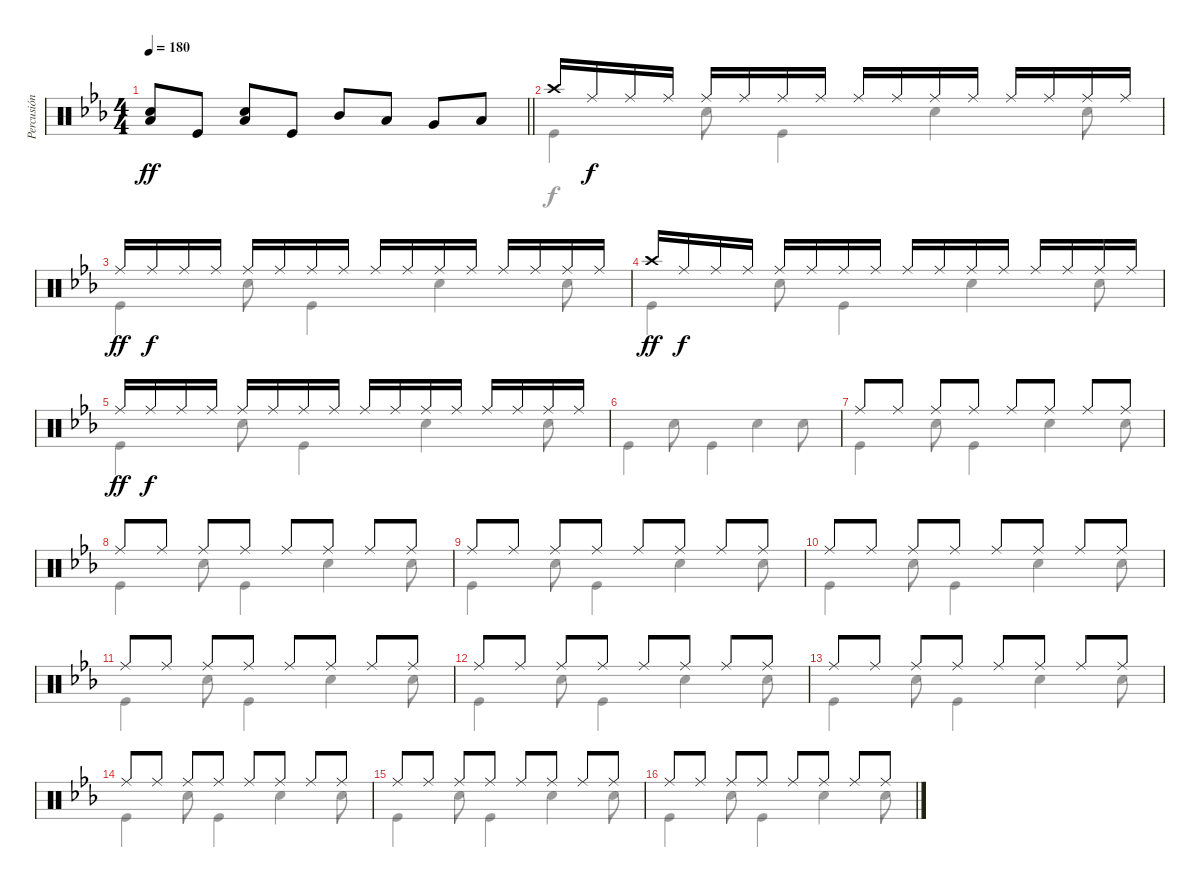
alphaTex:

\track ("Percusión" "Percusión") {instrument percussion}
\staff {score}
\articulation defaults
\voice
\ts (4 4)
\tempo 180
\clef neutral
\barLineRight lightlight
\ks eb
("Low Floor Tom (hit)" "Snare (hit) 2").8{dy ff} "Kick (hit)".8 ("Low Floor Tom (hit)" "Snare (hit) 2").8 "Kick (hit)".8 "Mid Tom (hit)".8 "Low Tom (hit)".8 "Very Low Tom (hit)".8 "Low Floor Tom (hit)".8 |
"Crash high (hit)".16 "Ride (middle)".16{dy f} "Ride (middle)".16 "Ride (middle)".16 "Ride (middle)".16 "Ride (middle)".16 "Ride (middle)".16 "Ride (middle)".16 "Ride (middle)".16 "Ride (middle)".16 "Ride (middle)".16 "Ride (middle)".16 "Ride (middle)".16 "Ride (middle)".16 "Ride (middle)".16 "Ride (middle)".16 |
"Ride (middle)".16{dy ff} "Ride (middle)".16{dy f} "Ride (middle)".16 "Ride (middle)".16 "Ride (middle)".16 "Ride (middle)".16 "Ride (middle)".16 "Ride (middle)".16 "Ride (middle)".16 "Ride (middle)".16 "Ride (middle)".16 "Ride (middle)".16 "Ride (middle)".16 "Ride (middle)".16 "Ride (middle)".16 "Ride (middle)".16 |
"Crash high (hit)".16{dy ff} "Ride (middle)".16{dy f} "Ride (middle)".16 "Ride (middle)".16 "Ride (middle)".16 "Ride (middle)".16 "Ride (middle)".16 "Ride (middle)".16 "Ride (middle)".16 "Ride (middle)".16 "Ride (middle)".16 "Ride (middle)".16 "Ride (middle)".16 "Ride (middle)".16 "Ride (middle)".16 "Ride (middle)".16 |
"Ride (middle)".16{dy ff} "Ride (middle)".16{dy f} "Ride (middle)".16 "Ride (middle)".16 "Ride (middle)".16 "Ride (middle)".16 "Ride (middle)".16 "Ride (middle)".16 "Ride (middle)".16 "Ride (middle)".16 "Ride (middle)".16 "Ride (middle)".16 "Ride (middle)".16 "Ride (middle)".16 "Ride (middle)".16 "Ride (middle)".16 |
|
"Ride (middle)".8 "Ride (middle)".8 "Ride (middle)".8 "Ride (middle)".8 "Ride (middle)".8 "Ride (middle)".8 "Ride (middle)".8 "Ride (middle)".8 |
"Ride (middle)".8 "Ride (middle)".8 "Ride (middle)".8 "Ride (middle)".8 "Ride (middle)".8 "Ride (middle)".8 "Ride (middle)".8 "Ride (middle)".8 |
"Ride (middle)".8 "Ride (middle)".8 "Ride (middle)".8 "Ride (middle)".8 "Ride (middle)".8 "Ride (middle)".8 "Ride (middle)".8 "Ride (middle)".8 |
"Ride (middle)".8 "Ride (middle)".8 "Ride (middle)".8 "Ride (middle)".8 "Ride (middle)".8 "Ride (middle)".8 "Ride (middle)".8 "Ride (middle)".8 |
"Ride (middle)".8 "Ride (middle)".8 "Ride (middle)".8 "Ride (middle)".8 "Ride (middle)".8 "Ride (middle)".8 "Ride (middle)".8 "Ride (middle)".8 |
"Ride (middle)".8 "Ride (middle)".8 "Ride (middle)".8 "Ride (middle)".8 "Ride (middle)".8 "Ride (middle)".8 "Ride (middle)".8 "Ride (middle)".8 |
"Ride (middle)".8 "Ride (middle)".8 "Ride (middle)".8 "Ride (middle)".8 "Ride (middle)".8 "Ride (middle)".8 "Ride (middle)".8 "Ride (middle)".8 |
"Ride (middle)".8 "Ride (middle)".8 "Ride (middle)".8 "Ride (middle)".8 "Ride (middle)".8 "Ride (middle)".8 "Ride (middle)".8 "Ride (middle)".8 |
"Ride (middle)".8 "Ride (middle)".8 "Ride (middle)".8 "Ride (middle)".8 "Ride (middle)".8 "Ride (middle)".8 "Ride (middle)".8 "Ride (middle)".8 |
"Ride (middle)".8 "Ride (middle)".8 "Ride (middle)".8 "Ride (middle)".8 "Ride (middle)".8 "Ride (middle)".8 "Ride (middle)".8 "Ride (middle)".8
\voice
\clef neutral
\ottava regular
\simile none
\barLineRight lightlight
\ks eb
|
"Kick (hit)".4 "Snare (hit) 2".8 "Kick (hit)".4 "Snare (hit) 2".4 "Snare (hit) 2".8 |
"Kick (hit)".4 "Snare (hit) 2".8 "Kick (hit)".4 "Snare (hit) 2".4 "Snare (hit) 2".8 |
"Kick (hit)".4 "Snare (hit) 2".8 "Kick (hit)".4 "Snare (hit) 2".4 "Snare (hit) 2".8 |
"Kick (hit)".4 "Snare (hit) 2".8 "Kick (hit)".4 "Snare (hit) 2".4 "Snare (hit) 2".8 |
"Kick (hit)".4 "Snare (hit) 2".8 "Kick (hit)".4 "Snare (hit) 2".4 "Snare (hit) 2".8 |
"Kick (hit)".4 "Snare (hit) 2".8 "Kick (hit)".4 "Snare (hit) 2".4 "Snare (hit) 2".8 |
"Kick (hit)".4 "Snare (hit) 2".8 "Kick (hit)".4 "Snare (hit) 2".4 "Snare (hit) 2".8 |
"Kick (hit)".4 "Snare (hit) 2".8 "Kick (hit)".4 "Snare (hit) 2".4 "Snare (hit) 2".8 |
"Kick (hit)".4 "Snare (hit) 2".8 "Kick (hit)".4 "Snare (hit) 2".4 "Snare (hit) 2".8 |
"Kick (hit)".4 "Snare (hit) 2".8 "Kick (hit)".4 "Snare (hit) 2".4 "Snare (hit) 2".8 |
"Kick (hit)".4 "Snare (hit) 2".8 "Kick (hit)".4 "Snare (hit) 2".4 "Snare (hit) 2".8 |
"Kick (hit)".4 "Snare (hit) 2".8 "Kick (hit)".4 "Snare (hit) 2".4 "Snare (hit) 2".8 |
"Kick (hit)".4 "Snare (hit) 2".8 "Kick (hit)".4 "Snare (hit) 2".4 "Snare (hit) 2".8 |
"Kick (hit)".4 "Snare (hit) 2".8 "Kick (hit)".4 "Snare (hit) 2".4 "Snare (hit) 2".8 |
"Kick (hit)".4 "Snare (hit) 2".8 "Kick (hit)".4 "Snare (hit) 2".4 "Snare (hit) 2".8
